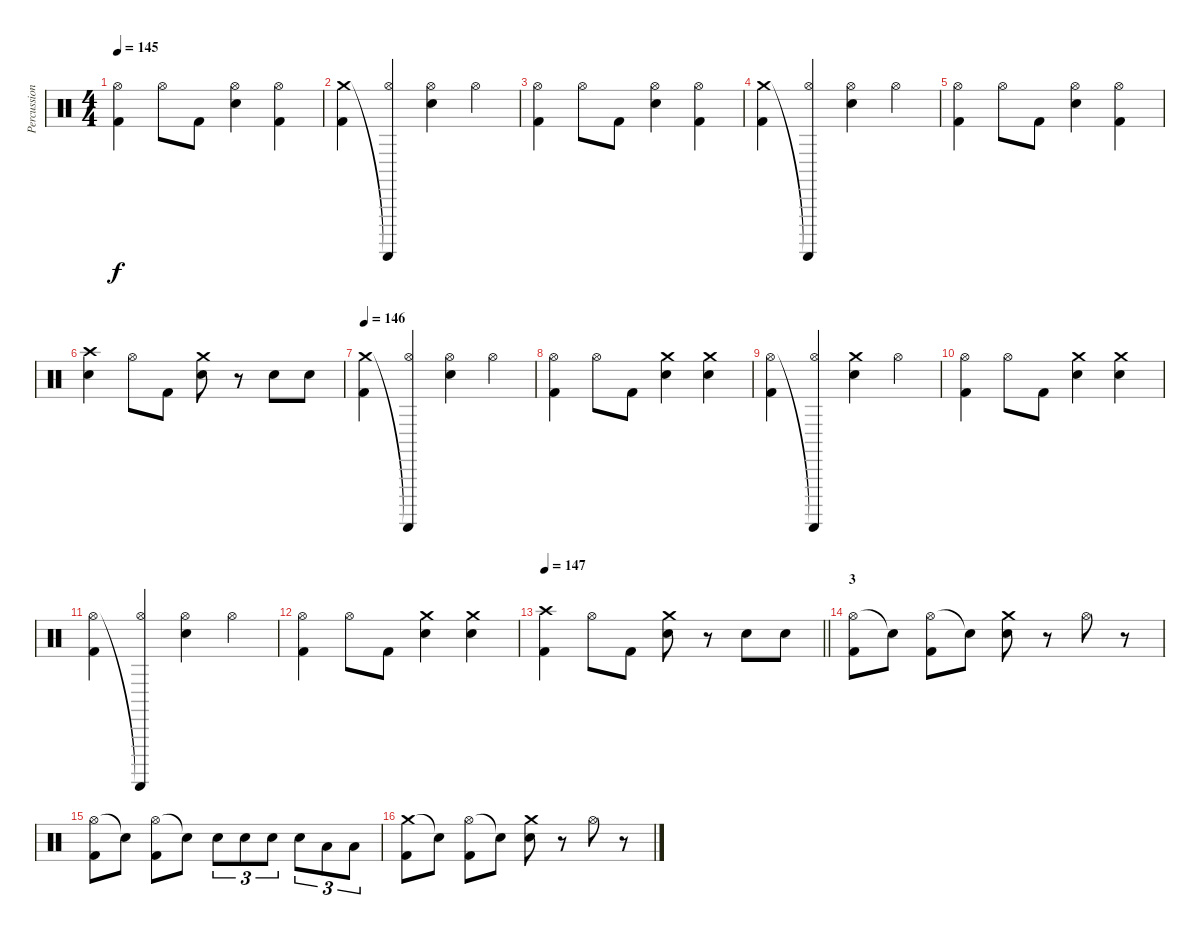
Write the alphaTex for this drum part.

\track ("Percussion" "Percussion") {instrument percussion}
\staff {score}
\articulation defaults
\ts (4 4)
\tempo 145
\clef neutral
\ks c
("Hi-Hat (open)" "Kick (hit) 2").4{dy f} "Hi-Hat (open)".8 "Kick (hit) 2".8 ("Hi-Hat (open)" "Electric Snare (hit)").4 ("Hi-Hat (open)" "Kick (hit) 2").4 |
("Crash medium (hit)" "Kick (hit) 2").4 ("Guiro (scrap-return)"{t} "Hi-Hat (open)").4 ("Hi-Hat (open)" "Electric Snare (hit)").4 "Hi-Hat (open)".4 |
("Hi-Hat (open)" "Kick (hit) 2").4 "Hi-Hat (open)".8 "Kick (hit) 2".8 ("Hi-Hat (open)" "Electric Snare (hit)").4 ("Hi-Hat (open)" "Kick (hit) 2").4 |
("Crash medium (hit)" "Kick (hit) 2").4 ("Guiro (scrap-return)"{t} "Hi-Hat (open)").4 ("Hi-Hat (open)" "Electric Snare (hit)").4 "Hi-Hat (open)".4 |
("Hi-Hat (open)" "Kick (hit) 2").4 "Hi-Hat (open)".8 "Kick (hit) 2".8 ("Hi-Hat (open)" "Electric Snare (hit)").4 ("Hi-Hat (open)" "Kick (hit) 2").4 |
("Crash high (hit)" "Electric Snare (hit)").4 "Hi-Hat (open)".8 "Kick (hit) 2".8 ("Crash medium (hit)" "Electric Snare (hit)").8 r.8 "Electric Snare (hit)".8 "Electric Snare (hit)".8 |
\tempo 146
("Crash medium (hit)" "Kick (hit) 2").4 ("Guiro (scrap-return)"{t} "Hi-Hat (open)").4 ("Hi-Hat (open)" "Electric Snare (hit)").4 "Hi-Hat (open)".4 |
("Hi-Hat (open)" "Kick (hit) 2").4 "Hi-Hat (open)".8 "Kick (hit) 2".8 ("Crash medium (hit)" "Electric Snare (hit)").4 ("Crash medium (hit)" "Electric Snare (hit)").4 |
("Hi-Hat (open)" "Kick (hit) 2").4 ("Guiro (scrap-return)"{t} "Hi-Hat (open)").4 ("Crash medium (hit)" "Electric Snare (hit)").4 "Hi-Hat (open)".4 |
("Hi-Hat (open)" "Kick (hit) 2").4 "Hi-Hat (open)".8 "Kick (hit) 2".8 ("Crash medium (hit)" "Electric Snare (hit)").4 ("Crash medium (hit)" "Electric Snare (hit)").4 |
("Hi-Hat (open)" "Kick (hit) 2").4 ("Guiro (scrap-return)"{t} "Hi-Hat (open)").4 ("Hi-Hat (open)" "Electric Snare (hit)").4 "Hi-Hat (open)".4 |
("Hi-Hat (open)" "Kick (hit) 2").4 "Hi-Hat (open)".8 "Kick (hit) 2".8 ("Crash medium (hit)" "Electric Snare (hit)").4 ("Crash medium (hit)" "Electric Snare (hit)").4 |
\tempo 147
\barLineRight lightlight
("Crash high (hit)" "Kick (hit) 2").4 "Hi-Hat (open)".8 "Kick (hit) 2".8 ("Crash medium (hit)" "Electric Snare (hit)").8 r.8 "Electric Snare (hit)".8 "Electric Snare (hit)".8 |
\section ("" "3")
("Hi-Hat (open)" "Kick (hit) 2").8 "Snare (hit)"{t}.8 ("Hi-Hat (open)" "Kick (hit) 2").8 "Snare (hit)"{t}.8 ("Crash medium (hit)" "Electric Snare (hit)").8 r.8 "Hi-Hat (open)".8 r.8 |
("Hi-Hat (open)" "Kick (hit) 2").8 "Snare (hit)"{t}.8 ("Hi-Hat (open)" "Kick (hit) 2").8 "Snare (hit)"{t}.8 "Electric Snare (hit)".8{tu (3 2)} "Electric Snare (hit)".8{tu (3 2)} "Electric Snare (hit)".8{tu (3 2)} "Electric Snare (hit)".8{tu (3 2)} "Low Tom (hit)".8{tu (3 2)} "Low Tom (hit)".8{tu (3 2)} |
("Crash medium (hit)" "Kick (hit) 2").8 "Snare (hit)"{t}.8 ("Hi-Hat (open)" "Kick (hit) 2").8 "Snare (hit)"{t}.8 ("Crash medium (hit)" "Electric Snare (hit)").8 r.8 "Hi-Hat (open)".8 r.8
